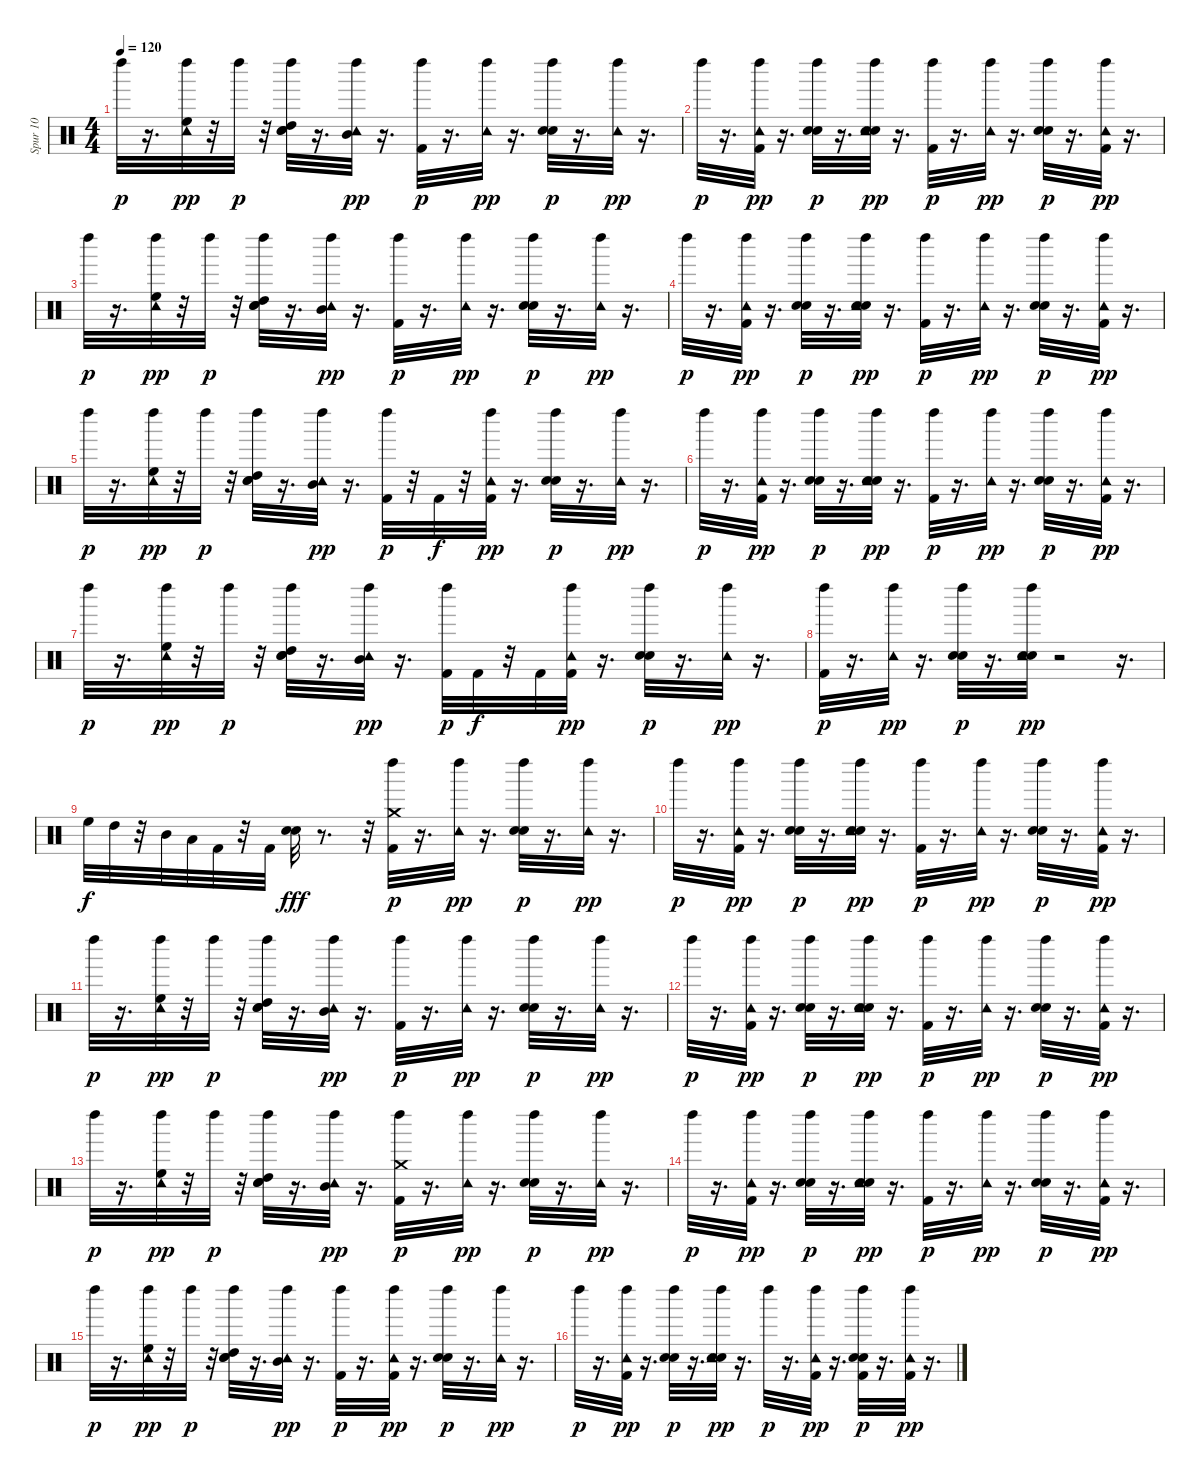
\track ("Spur 10" "Spur 10") {instrument percussion}
\staff {score}
\articulation defaults
\ts (4 4)
\tempo 120
\clef neutral
\ks c "Left Maraca (hit)".32{dy p}
r.16{d} ("High Floor Tom (hit)" "Tambourine (hit)" "Left Maraca (hit)").32{dy pp} r.32 "Left Maraca (hit)".32{dy p} r.32 ("Hand Clap (hit)" "Electric Snare (hit)" "High Tom (hit)" "Left Maraca (hit)").32 r.16{d} ("Mid Tom (hit)" "Tambourine (hit)" "Left Maraca (hit)").32{dy pp} r.16{d} ("Kick (hit) 2" "Left Maraca (hit)").32{dy p} r.16{d} ("Tambourine (hit)" "Left Maraca (hit)").32{dy pp} r.16{d} ("Hand Clap (hit)" "Electric Snare (hit)" "Left Maraca (hit)").32{dy p} r.16{d} ("Tambourine (hit)" "Left Maraca (hit)").32{dy pp} r.16{d} |
"Left Maraca (hit)".32{dy p} r.16{d} ("Kick (hit) 2" "Tambourine (hit)" "Left Maraca (hit)").32{dy pp} r.16{d} ("Hand Clap (hit)" "Electric Snare (hit)" "Left Maraca (hit)").32{dy p} r.16{d} ("Hand Clap (hit)" "Electric Snare (hit)" "Tambourine (hit)" "Left Maraca (hit)").32{dy pp} r.16{d} ("Kick (hit) 2" "Left Maraca (hit)").32{dy p} r.16{d} ("Tambourine (hit)" "Left Maraca (hit)").32{dy pp} r.16{d} ("Hand Clap (hit)" "Electric Snare (hit)" "Left Maraca (hit)").32{dy p} r.16{d} ("Kick (hit) 2" "Tambourine (hit)" "Left Maraca (hit)").32{dy pp} r.16{d} |
"Left Maraca (hit)".32{dy p} r.16{d} ("High Floor Tom (hit)" "Tambourine (hit)" "Left Maraca (hit)").32{dy pp} r.32 "Left Maraca (hit)".32{dy p} r.32 ("Hand Clap (hit)" "Electric Snare (hit)" "High Tom (hit)" "Left Maraca (hit)").32 r.16{d} ("Mid Tom (hit)" "Tambourine (hit)" "Left Maraca (hit)").32{dy pp} r.16{d} ("Kick (hit) 2" "Left Maraca (hit)").32{dy p} r.16{d} ("Tambourine (hit)" "Left Maraca (hit)").32{dy pp} r.16{d} ("Hand Clap (hit)" "Electric Snare (hit)" "Left Maraca (hit)").32{dy p} r.16{d} ("Tambourine (hit)" "Left Maraca (hit)").32{dy pp} r.16{d} |
"Left Maraca (hit)".32{dy p} r.16{d} ("Kick (hit) 2" "Tambourine (hit)" "Left Maraca (hit)").32{dy pp} r.16{d} ("Hand Clap (hit)" "Electric Snare (hit)" "Left Maraca (hit)").32{dy p} r.16{d} ("Hand Clap (hit)" "Electric Snare (hit)" "Tambourine (hit)" "Left Maraca (hit)").32{dy pp} r.16{d} ("Kick (hit) 2" "Left Maraca (hit)").32{dy p} r.16{d} ("Tambourine (hit)" "Left Maraca (hit)").32{dy pp} r.16{d} ("Hand Clap (hit)" "Electric Snare (hit)" "Left Maraca (hit)").32{dy p} r.16{d} ("Kick (hit) 2" "Tambourine (hit)" "Left Maraca (hit)").32{dy pp} r.16{d} |
"Left Maraca (hit)".32{dy p} r.16{d} ("High Floor Tom (hit)" "Tambourine (hit)" "Left Maraca (hit)").32{dy pp} r.32 "Left Maraca (hit)".32{dy p} r.32 ("Hand Clap (hit)" "Electric Snare (hit)" "High Tom (hit)" "Left Maraca (hit)").32 r.16{d} ("Mid Tom (hit)" "Tambourine (hit)" "Left Maraca (hit)").32{dy pp} r.16{d} ("Kick (hit) 2" "Left Maraca (hit)").32{dy p} r.32 "Kick (hit) 2".32{dy f} r.32 ("Kick (hit) 2" "Tambourine (hit)" "Left Maraca (hit)").32{dy pp} r.16{d} ("Hand Clap (hit)" "Electric Snare (hit)" "Left Maraca (hit)").32{dy p} r.16{d} ("Tambourine (hit)" "Left Maraca (hit)").32{dy pp} r.16{d} |
"Left Maraca (hit)".32{dy p} r.16{d} ("Kick (hit) 2" "Tambourine (hit)" "Left Maraca (hit)").32{dy pp} r.16{d} ("Hand Clap (hit)" "Electric Snare (hit)" "Left Maraca (hit)").32{dy p} r.16{d} ("Hand Clap (hit)" "Electric Snare (hit)" "Tambourine (hit)" "Left Maraca (hit)").32{dy pp} r.16{d} ("Kick (hit) 2" "Left Maraca (hit)").32{dy p} r.16{d} ("Tambourine (hit)" "Left Maraca (hit)").32{dy pp} r.16{d} ("Hand Clap (hit)" "Electric Snare (hit)" "Left Maraca (hit)").32{dy p} r.16{d} ("Kick (hit) 2" "Tambourine (hit)" "Left Maraca (hit)").32{dy pp} r.16{d} |
"Left Maraca (hit)".32{dy p} r.16{d} ("High Floor Tom (hit)" "Tambourine (hit)" "Left Maraca (hit)").32{dy pp} r.32 "Left Maraca (hit)".32{dy p} r.32 ("Hand Clap (hit)" "Electric Snare (hit)" "High Tom (hit)" "Left Maraca (hit)").32 r.16{d} ("Mid Tom (hit)" "Tambourine (hit)" "Left Maraca (hit)").32{dy pp} r.16{d} ("Kick (hit) 2" "Left Maraca (hit)").32{dy p} "Kick (hit) 2".32{dy f} r.32 "Kick (hit) 2".32 ("Kick (hit) 2" "Tambourine (hit)" "Left Maraca (hit)").32{dy pp} r.16{d} ("Hand Clap (hit)" "Electric Snare (hit)" "Left Maraca (hit)").32{dy p} r.16{d} ("Tambourine (hit)" "Left Maraca (hit)").32{dy pp} r.16{d} |
("Kick (hit) 2" "Left Maraca (hit)").32{dy p} r.16{d} ("Tambourine (hit)" "Left Maraca (hit)").32{dy pp} r.16{d} ("Hand Clap (hit)" "Electric Snare (hit)" "Left Maraca (hit)").32{dy p} r.16{d} ("Hand Clap (hit)" "Electric Snare (hit)" "Tambourine (hit)" "Left Maraca (hit)").32{dy pp} r.2 r.16{d} |
"High Floor Tom (hit)".32{dy f} "High Tom (hit)".32 r.32 "Mid Tom (hit)".32 "Low Tom (hit)".32 "Kick (hit) 2".32 r.32 "Kick (hit) 2".32 ("Hand Clap (hit)" "Electric Snare (hit)").32{dy fff} r.8{d} r.32 ("Kick (hit) 2" "Crash medium (hit)" "Left Maraca (hit)").32{dy p} r.16{d} ("Tambourine (hit)" "Left Maraca (hit)").32{dy pp} r.16{d} ("Hand Clap (hit)" "Electric Snare (hit)" "Left Maraca (hit)").32{dy p} r.16{d} ("Tambourine (hit)" "Left Maraca (hit)").32{dy pp} r.16{d} |
"Left Maraca (hit)".32{dy p} r.16{d} ("Kick (hit) 2" "Tambourine (hit)" "Left Maraca (hit)").32{dy pp} r.16{d} ("Hand Clap (hit)" "Electric Snare (hit)" "Left Maraca (hit)").32{dy p} r.16{d} ("Hand Clap (hit)" "Electric Snare (hit)" "Tambourine (hit)" "Left Maraca (hit)").32{dy pp} r.16{d} ("Kick (hit) 2" "Left Maraca (hit)").32{dy p} r.16{d} ("Tambourine (hit)" "Left Maraca (hit)").32{dy pp} r.16{d} ("Hand Clap (hit)" "Electric Snare (hit)" "Left Maraca (hit)").32{dy p} r.16{d} ("Kick (hit) 2" "Tambourine (hit)" "Left Maraca (hit)").32{dy pp} r.16{d} |
"Left Maraca (hit)".32{dy p} r.16{d} ("High Floor Tom (hit)" "Tambourine (hit)" "Left Maraca (hit)").32{dy pp} r.32 "Left Maraca (hit)".32{dy p} r.32 ("Hand Clap (hit)" "Electric Snare (hit)" "High Tom (hit)" "Left Maraca (hit)").32 r.16{d} ("Mid Tom (hit)" "Tambourine (hit)" "Left Maraca (hit)").32{dy pp} r.16{d} ("Kick (hit) 2" "Left Maraca (hit)").32{dy p} r.16{d} ("Tambourine (hit)" "Left Maraca (hit)").32{dy pp} r.16{d} ("Hand Clap (hit)" "Electric Snare (hit)" "Left Maraca (hit)").32{dy p} r.16{d} ("Tambourine (hit)" "Left Maraca (hit)").32{dy pp} r.16{d} |
"Left Maraca (hit)".32{dy p} r.16{d} ("Kick (hit) 2" "Tambourine (hit)" "Left Maraca (hit)").32{dy pp} r.16{d} ("Hand Clap (hit)" "Electric Snare (hit)" "Left Maraca (hit)").32{dy p} r.16{d} ("Hand Clap (hit)" "Electric Snare (hit)" "Tambourine (hit)" "Left Maraca (hit)").32{dy pp} r.16{d} ("Kick (hit) 2" "Left Maraca (hit)").32{dy p} r.16{d} ("Tambourine (hit)" "Left Maraca (hit)").32{dy pp} r.16{d} ("Hand Clap (hit)" "Electric Snare (hit)" "Left Maraca (hit)").32{dy p} r.16{d} ("Kick (hit) 2" "Tambourine (hit)" "Left Maraca (hit)").32{dy pp} r.16{d} |
"Left Maraca (hit)".32{dy p} r.16{d} ("High Floor Tom (hit)" "Tambourine (hit)" "Left Maraca (hit)").32{dy pp} r.32 "Left Maraca (hit)".32{dy p} r.32 ("Hand Clap (hit)" "Electric Snare (hit)" "High Tom (hit)" "Left Maraca (hit)").32 r.16{d} ("Mid Tom (hit)" "Tambourine (hit)" "Left Maraca (hit)").32{dy pp} r.16{d} ("Kick (hit) 2" "Crash medium (hit)" "Left Maraca (hit)").32{dy p} r.16{d} ("Tambourine (hit)" "Left Maraca (hit)").32{dy pp} r.16{d} ("Hand Clap (hit)" "Electric Snare (hit)" "Left Maraca (hit)").32{dy p} r.16{d} ("Tambourine (hit)" "Left Maraca (hit)").32{dy pp} r.16{d} |
"Left Maraca (hit)".32{dy p} r.16{d} ("Kick (hit) 2" "Tambourine (hit)" "Left Maraca (hit)").32{dy pp} r.16{d} ("Hand Clap (hit)" "Electric Snare (hit)" "Left Maraca (hit)").32{dy p} r.16{d} ("Hand Clap (hit)" "Electric Snare (hit)" "Tambourine (hit)" "Left Maraca (hit)").32{dy pp} r.16{d} ("Kick (hit) 2" "Left Maraca (hit)").32{dy p} r.16{d} ("Tambourine (hit)" "Left Maraca (hit)").32{dy pp} r.16{d} ("Hand Clap (hit)" "Electric Snare (hit)" "Left Maraca (hit)").32{dy p} r.16{d} ("Kick (hit) 2" "Tambourine (hit)" "Left Maraca (hit)").32{dy pp} r.16{d} |
"Left Maraca (hit)".32{dy p} r.16{d} ("High Floor Tom (hit)" "Tambourine (hit)" "Left Maraca (hit)").32{dy pp} r.32 "Left Maraca (hit)".32{dy p} r.32 ("Hand Clap (hit)" "Electric Snare (hit)" "High Tom (hit)" "Left Maraca (hit)").32 r.16{d} ("Mid Tom (hit)" "Tambourine (hit)" "Left Maraca (hit)").32{dy pp} r.16{d} ("Kick (hit) 2" "Left Maraca (hit)").32{dy p} r.16{d} ("Kick (hit) 2" "Tambourine (hit)" "Left Maraca (hit)").32{dy pp} r.16{d} ("Hand Clap (hit)" "Electric Snare (hit)" "Left Maraca (hit)").32{dy p} r.16{d} ("Tambourine (hit)" "Left Maraca (hit)").32{dy pp} r.16{d} |
"Left Maraca (hit)".32{dy p} r.16{d} ("Kick (hit) 2" "Tambourine (hit)" "Left Maraca (hit)").32{dy pp} r.16{d} ("Hand Clap (hit)" "Electric Snare (hit)" "Left Maraca (hit)").32{dy p} r.16{d} ("Hand Clap (hit)" "Electric Snare (hit)" "Tambourine (hit)" "Left Maraca (hit)").32{dy pp} r.16{d} "Left Maraca (hit)".32{dy p} r.16{d} ("Kick (hit) 2" "Tambourine (hit)" "Left Maraca (hit)").32{dy pp} r.16{d} ("Kick (hit) 2" "Hand Clap (hit)" "Electric Snare (hit)" "Left Maraca (hit)").32{dy p} r.16{d} ("Kick (hit) 2" "Tambourine (hit)" "Left Maraca (hit)").32{dy pp} r.16{d}
